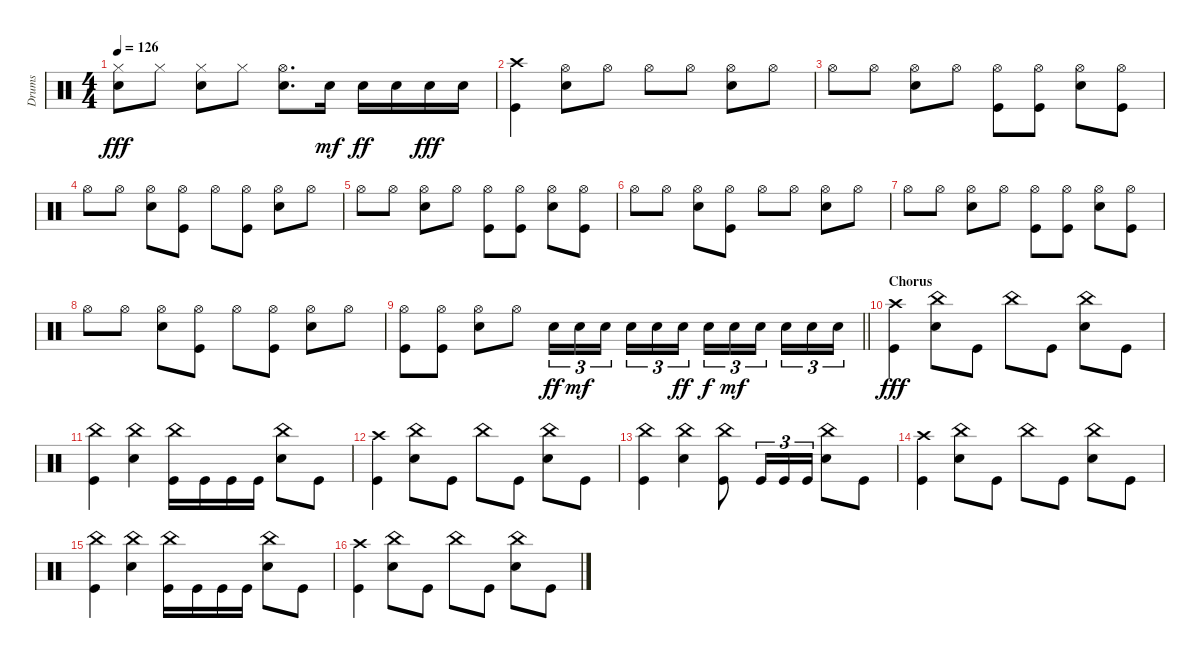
\track ("Drums" "Drums") {instrument percussion}
\staff {score}
\articulation defaults
\ts (4 4)
\tempo 126
\clef neutral
\ks c
("Hi-Hat (closed)" "Snare (hit) 2").8{dy fff} "Hi-Hat (closed)".8 ("Hi-Hat (closed)" "Snare (hit) 2").8 "Hi-Hat (closed)".8 ("Hi-Hat (open)" "Snare (hit) 2").8{d} "Snare (hit) 2".16{dy mf} "Snare (hit) 2".16{dy ff} "Snare (hit) 2".16 "Snare (hit) 2".16{dy fff} "Snare (hit) 2".16 |
("Crash high (hit)" "Kick (hit)").4 ("Hi-Hat (open)" "Snare (hit) 2").8 "Hi-Hat (open)".8 "Hi-Hat (open)".8 "Hi-Hat (open)".8 ("Hi-Hat (open)" "Snare (hit) 2").8 "Hi-Hat (open)".8 |
"Hi-Hat (open)".8 "Hi-Hat (open)".8 ("Hi-Hat (open)" "Snare (hit) 2").8 "Hi-Hat (open)".8 ("Hi-Hat (open)" "Kick (hit)").8 ("Hi-Hat (open)" "Kick (hit)").8 ("Hi-Hat (open)" "Snare (hit) 2").8 ("Hi-Hat (open)" "Kick (hit)").8 |
"Hi-Hat (open)".8 "Hi-Hat (open)".8 ("Hi-Hat (open)" "Snare (hit) 2").8 ("Hi-Hat (open)" "Kick (hit)").8 "Hi-Hat (open)".8 ("Hi-Hat (open)" "Kick (hit)").8 ("Hi-Hat (open)" "Snare (hit) 2").8 "Hi-Hat (open)".8 |
"Hi-Hat (open)".8 "Hi-Hat (open)".8 ("Hi-Hat (open)" "Snare (hit) 2").8 "Hi-Hat (open)".8 ("Hi-Hat (open)" "Kick (hit)").8 ("Hi-Hat (open)" "Kick (hit)").8 ("Hi-Hat (open)" "Snare (hit) 2").8 ("Hi-Hat (open)" "Kick (hit)").8 |
"Hi-Hat (open)".8 "Hi-Hat (open)".8 ("Hi-Hat (open)" "Snare (hit) 2").8 ("Hi-Hat (open)" "Kick (hit)").8 "Hi-Hat (open)".8 "Hi-Hat (open)".8 ("Hi-Hat (open)" "Snare (hit) 2").8 "Hi-Hat (open)".8 |
"Hi-Hat (open)".8 "Hi-Hat (open)".8 ("Hi-Hat (open)" "Snare (hit) 2").8 "Hi-Hat (open)".8 ("Hi-Hat (open)" "Kick (hit)").8 ("Hi-Hat (open)" "Kick (hit)").8 ("Hi-Hat (open)" "Snare (hit) 2").8 ("Hi-Hat (open)" "Kick (hit)").8 |
"Hi-Hat (open)".8 "Hi-Hat (open)".8 ("Hi-Hat (open)" "Snare (hit) 2").8 ("Hi-Hat (open)" "Kick (hit)").8 "Hi-Hat (open)".8 ("Hi-Hat (open)" "Kick (hit)").8 ("Hi-Hat (open)" "Snare (hit) 2").8 "Hi-Hat (open)".8 |
\barLineRight lightlight
("Hi-Hat (open)" "Kick (hit)").8 ("Hi-Hat (open)" "Kick (hit)").8 ("Hi-Hat (open)" "Snare (hit) 2").8 "Hi-Hat (open)".8 "Snare (hit) 2".16{tu (3 2) dy ff} "Snare (hit) 2".16{tu (3 2) dy mf} "Snare (hit) 2".16{tu (3 2) beam splitsecondary} "Snare (hit) 2".16{tu (3 2)} "Snare (hit) 2".16{tu (3 2)} "Snare (hit) 2".16{tu (3 2) dy ff} "Snare (hit) 2".16{tu (3 2) dy f} "Snare (hit) 2".16{tu (3 2) dy mf} "Snare (hit) 2".16{tu (3 2) beam splitsecondary} "Snare (hit) 2".16{tu (3 2)} "Snare (hit) 2".16{tu (3 2)} "Snare (hit) 2".16{tu (3 2)} |
\section ("" "Chorus")
("Crash high (hit)" "Kick (hit)").4{dy fff} ("China (hit)" "Snare (hit) 2").8 "Kick (hit)".8 "China (hit)".8 "Kick (hit)".8 ("China (hit)" "Snare (hit) 2").8 "Kick (hit)".8 |
("China (hit)" "Kick (hit)").4 ("China (hit)" "Snare (hit) 2").4 ("China (hit)" "Kick (hit)").16 "Kick (hit)".16 "Kick (hit)".16 "Kick (hit)".16 ("China (hit)" "Snare (hit) 2").8 "Kick (hit)".8 |
("Crash high (hit)" "Kick (hit)").4 ("China (hit)" "Snare (hit) 2").8 "Kick (hit)".8 "China (hit)".8 "Kick (hit)".8 ("China (hit)" "Snare (hit) 2").8 "Kick (hit)".8 |
("China (hit)" "Kick (hit)").4 ("China (hit)" "Snare (hit) 2").4 ("China (hit)" "Kick (hit)").8 "Kick (hit)".16{tu (3 2)} "Kick (hit)".16{tu (3 2)} "Kick (hit)".16{tu (3 2)} ("China (hit)" "Snare (hit) 2").8 "Kick (hit)".8 |
("Crash high (hit)" "Kick (hit)").4 ("China (hit)" "Snare (hit) 2").8 "Kick (hit)".8 "China (hit)".8 "Kick (hit)".8 ("China (hit)" "Snare (hit) 2").8 "Kick (hit)".8 |
("China (hit)" "Kick (hit)").4 ("China (hit)" "Snare (hit) 2").4 ("China (hit)" "Kick (hit)").16 "Kick (hit)".16 "Kick (hit)".16 "Kick (hit)".16 ("China (hit)" "Snare (hit) 2").8 "Kick (hit)".8 |
("Crash high (hit)" "Kick (hit)").4 ("China (hit)" "Snare (hit) 2").8 "Kick (hit)".8 "China (hit)".8 "Kick (hit)".8 ("China (hit)" "Snare (hit) 2").8 "Kick (hit)".8
